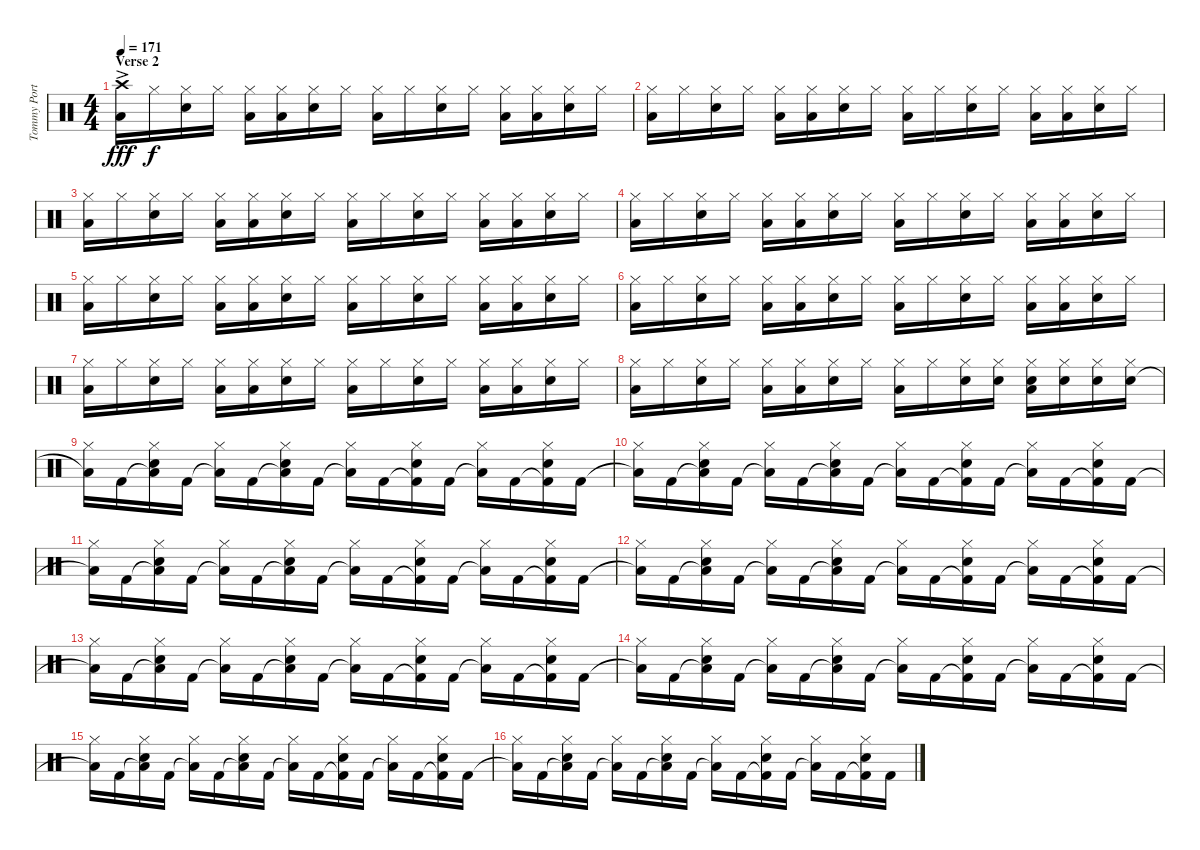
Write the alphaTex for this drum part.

\track ("Tommy Portino" "Tommy Port") {instrument percussion}
\staff {score}
\articulation defaults
\ts (4 4)
\section ("" "Verse 2")
\tempo 171
\clef neutral
\ks aminor
("Low Floor Tom (hit)"{ac} "Crash high (hit)").16{dy fff} "Hi-Hat (closed)".16{dy f} ("Electric Snare (hit)" "Hi-Hat (closed)").16 "Hi-Hat (closed)".16 ("Low Floor Tom (hit)" "Hi-Hat (closed)").16 ("Low Floor Tom (hit)" "Hi-Hat (closed)").16 ("Electric Snare (hit)" "Hi-Hat (closed)").16 "Hi-Hat (closed)".16 ("Low Floor Tom (hit)" "Hi-Hat (closed)").16 "Hi-Hat (closed)".16 ("Electric Snare (hit)" "Hi-Hat (closed)").16 "Hi-Hat (closed)".16 ("Low Floor Tom (hit)" "Hi-Hat (closed)").16 ("Low Floor Tom (hit)" "Hi-Hat (closed)").16 ("Electric Snare (hit)" "Hi-Hat (closed)").16 "Hi-Hat (closed)".16 |
("Low Floor Tom (hit)" "Hi-Hat (closed)").16 "Hi-Hat (closed)".16 ("Electric Snare (hit)" "Hi-Hat (closed)").16 "Hi-Hat (closed)".16 ("Low Floor Tom (hit)" "Hi-Hat (closed)").16 ("Low Floor Tom (hit)" "Hi-Hat (closed)").16 ("Electric Snare (hit)" "Hi-Hat (closed)").16 "Hi-Hat (closed)".16 ("Low Floor Tom (hit)" "Hi-Hat (closed)").16 "Hi-Hat (closed)".16 ("Electric Snare (hit)" "Hi-Hat (closed)").16 "Hi-Hat (closed)".16 ("Low Floor Tom (hit)" "Hi-Hat (closed)").16 ("Low Floor Tom (hit)" "Hi-Hat (closed)").16 ("Electric Snare (hit)" "Hi-Hat (closed)").16 "Hi-Hat (closed)".16 |
("Low Floor Tom (hit)" "Hi-Hat (closed)").16 "Hi-Hat (closed)".16 ("Electric Snare (hit)" "Hi-Hat (closed)").16 "Hi-Hat (closed)".16 ("Low Floor Tom (hit)" "Hi-Hat (closed)").16 ("Low Floor Tom (hit)" "Hi-Hat (closed)").16 ("Electric Snare (hit)" "Hi-Hat (closed)").16 "Hi-Hat (closed)".16 ("Low Floor Tom (hit)" "Hi-Hat (closed)").16 "Hi-Hat (closed)".16 ("Electric Snare (hit)" "Hi-Hat (closed)").16 "Hi-Hat (closed)".16 ("Low Floor Tom (hit)" "Hi-Hat (closed)").16 ("Low Floor Tom (hit)" "Hi-Hat (closed)").16 ("Electric Snare (hit)" "Hi-Hat (closed)").16 "Hi-Hat (closed)".16 |
("Low Floor Tom (hit)" "Hi-Hat (closed)").16 "Hi-Hat (closed)".16 ("Electric Snare (hit)" "Hi-Hat (closed)").16 "Hi-Hat (closed)".16 ("Low Floor Tom (hit)" "Hi-Hat (closed)").16 ("Low Floor Tom (hit)" "Hi-Hat (closed)").16 ("Electric Snare (hit)" "Hi-Hat (closed)").16 "Hi-Hat (closed)".16 ("Low Floor Tom (hit)" "Hi-Hat (closed)").16 "Hi-Hat (closed)".16 ("Electric Snare (hit)" "Hi-Hat (closed)").16 "Hi-Hat (closed)".16 ("Low Floor Tom (hit)" "Hi-Hat (closed)").16 ("Low Floor Tom (hit)" "Hi-Hat (closed)").16 ("Electric Snare (hit)" "Hi-Hat (closed)").16 "Hi-Hat (closed)".16 |
("Low Floor Tom (hit)" "Hi-Hat (closed)").16 "Hi-Hat (closed)".16 ("Electric Snare (hit)" "Hi-Hat (closed)").16 "Hi-Hat (closed)".16 ("Low Floor Tom (hit)" "Hi-Hat (closed)").16 ("Low Floor Tom (hit)" "Hi-Hat (closed)").16 ("Electric Snare (hit)" "Hi-Hat (closed)").16 "Hi-Hat (closed)".16 ("Low Floor Tom (hit)" "Hi-Hat (closed)").16 "Hi-Hat (closed)".16 ("Electric Snare (hit)" "Hi-Hat (closed)").16 "Hi-Hat (closed)".16 ("Low Floor Tom (hit)" "Hi-Hat (closed)").16 ("Low Floor Tom (hit)" "Hi-Hat (closed)").16 ("Electric Snare (hit)" "Hi-Hat (closed)").16 "Hi-Hat (closed)".16 |
("Low Floor Tom (hit)" "Hi-Hat (closed)").16 "Hi-Hat (closed)".16 ("Electric Snare (hit)" "Hi-Hat (closed)").16 "Hi-Hat (closed)".16 ("Low Floor Tom (hit)" "Hi-Hat (closed)").16 ("Low Floor Tom (hit)" "Hi-Hat (closed)").16 ("Electric Snare (hit)" "Hi-Hat (closed)").16 "Hi-Hat (closed)".16 ("Low Floor Tom (hit)" "Hi-Hat (closed)").16 "Hi-Hat (closed)".16 ("Electric Snare (hit)" "Hi-Hat (closed)").16 "Hi-Hat (closed)".16 ("Low Floor Tom (hit)" "Hi-Hat (closed)").16 ("Low Floor Tom (hit)" "Hi-Hat (closed)").16 ("Electric Snare (hit)" "Hi-Hat (closed)").16 "Hi-Hat (closed)".16 |
("Low Floor Tom (hit)" "Hi-Hat (closed)").16 "Hi-Hat (closed)".16 ("Electric Snare (hit)" "Hi-Hat (closed)").16 "Hi-Hat (closed)".16 ("Low Floor Tom (hit)" "Hi-Hat (closed)").16 ("Low Floor Tom (hit)" "Hi-Hat (closed)").16 ("Electric Snare (hit)" "Hi-Hat (closed)").16 "Hi-Hat (closed)".16 ("Low Floor Tom (hit)" "Hi-Hat (closed)").16 "Hi-Hat (closed)".16 ("Electric Snare (hit)" "Hi-Hat (closed)").16 "Hi-Hat (closed)".16 ("Low Floor Tom (hit)" "Hi-Hat (closed)").16 ("Low Floor Tom (hit)" "Hi-Hat (closed)").16 ("Electric Snare (hit)" "Hi-Hat (closed)").16 "Hi-Hat (closed)".16 |
("Low Floor Tom (hit)" "Hi-Hat (closed)").16 "Hi-Hat (closed)".16 ("Electric Snare (hit)" "Hi-Hat (closed)").16 "Hi-Hat (closed)".16 ("Low Floor Tom (hit)" "Hi-Hat (closed)").16 ("Low Floor Tom (hit)" "Hi-Hat (closed)").16 ("Electric Snare (hit)" "Hi-Hat (closed)").16 "Hi-Hat (closed)".16 ("Low Floor Tom (hit)" "Hi-Hat (closed)").16 "Hi-Hat (closed)".16 ("Electric Snare (hit)" "Hi-Hat (closed)").16 ("Electric Snare (hit)" "Hi-Hat (closed)").16 ("Low Floor Tom (hit)" "Electric Snare (hit)" "Hi-Hat (closed)").16 ("Electric Snare (hit)" "Hi-Hat (closed)").16 ("Electric Snare (hit)" "Hi-Hat (closed)").16 ("Electric Snare (hit)" "Hi-Hat (closed)").16 |
("Low Floor Tom (hit)"{t} "Hi-Hat (closed)").16 "Kick (hit) 2".16 ("Low Floor Tom (hit)"{t} "Electric Snare (hit)" "Hi-Hat (closed)").16 "Kick (hit) 2".16 ("Low Floor Tom (hit)"{t} "Hi-Hat (closed)").16 "Kick (hit) 2".16 ("Low Floor Tom (hit)"{t} "Electric Snare (hit)" "Hi-Hat (closed)").16 "Kick (hit) 2".16 ("Low Floor Tom (hit)"{t} "Hi-Hat (closed)").16 "Kick (hit) 2".16 ("Kick (hit) 2"{t} "Electric Snare (hit)" "Hi-Hat (closed)").16 "Kick (hit) 2".16 ("Low Floor Tom (hit)"{t} "Hi-Hat (closed)").16 "Kick (hit) 2".16 ("Kick (hit) 2"{t} "Electric Snare (hit)" "Hi-Hat (closed)").16 "Kick (hit) 2".16 |
("Low Floor Tom (hit)"{t} "Hi-Hat (closed)").16 "Kick (hit) 2".16 ("Low Floor Tom (hit)"{t} "Electric Snare (hit)" "Hi-Hat (closed)").16 "Kick (hit) 2".16 ("Low Floor Tom (hit)"{t} "Hi-Hat (closed)").16 "Kick (hit) 2".16 ("Low Floor Tom (hit)"{t} "Electric Snare (hit)" "Hi-Hat (closed)").16 "Kick (hit) 2".16 ("Low Floor Tom (hit)"{t} "Hi-Hat (closed)").16 "Kick (hit) 2".16 ("Kick (hit) 2"{t} "Electric Snare (hit)" "Hi-Hat (closed)").16 "Kick (hit) 2".16 ("Low Floor Tom (hit)"{t} "Hi-Hat (closed)").16 "Kick (hit) 2".16 ("Kick (hit) 2"{t} "Electric Snare (hit)" "Hi-Hat (closed)").16 "Kick (hit) 2".16 |
("Low Floor Tom (hit)"{t} "Hi-Hat (closed)").16 "Kick (hit) 2".16 ("Low Floor Tom (hit)"{t} "Electric Snare (hit)" "Hi-Hat (closed)").16 "Kick (hit) 2".16 ("Low Floor Tom (hit)"{t} "Hi-Hat (closed)").16 "Kick (hit) 2".16 ("Low Floor Tom (hit)"{t} "Electric Snare (hit)" "Hi-Hat (closed)").16 "Kick (hit) 2".16 ("Low Floor Tom (hit)"{t} "Hi-Hat (closed)").16 "Kick (hit) 2".16 ("Kick (hit) 2"{t} "Electric Snare (hit)" "Hi-Hat (closed)").16 "Kick (hit) 2".16 ("Low Floor Tom (hit)"{t} "Hi-Hat (closed)").16 "Kick (hit) 2".16 ("Kick (hit) 2"{t} "Electric Snare (hit)" "Hi-Hat (closed)").16 "Kick (hit) 2".16 |
("Low Floor Tom (hit)"{t} "Hi-Hat (closed)").16 "Kick (hit) 2".16 ("Low Floor Tom (hit)"{t} "Electric Snare (hit)" "Hi-Hat (closed)").16 "Kick (hit) 2".16 ("Low Floor Tom (hit)"{t} "Hi-Hat (closed)").16 "Kick (hit) 2".16 ("Low Floor Tom (hit)"{t} "Electric Snare (hit)" "Hi-Hat (closed)").16 "Kick (hit) 2".16 ("Low Floor Tom (hit)"{t} "Hi-Hat (closed)").16 "Kick (hit) 2".16 ("Kick (hit) 2"{t} "Electric Snare (hit)" "Hi-Hat (closed)").16 "Kick (hit) 2".16 ("Low Floor Tom (hit)"{t} "Hi-Hat (closed)").16 "Kick (hit) 2".16 ("Kick (hit) 2"{t} "Electric Snare (hit)" "Hi-Hat (closed)").16 "Kick (hit) 2".16 |
("Low Floor Tom (hit)"{t} "Hi-Hat (closed)").16 "Kick (hit) 2".16 ("Low Floor Tom (hit)"{t} "Electric Snare (hit)" "Hi-Hat (closed)").16 "Kick (hit) 2".16 ("Low Floor Tom (hit)"{t} "Hi-Hat (closed)").16 "Kick (hit) 2".16 ("Low Floor Tom (hit)"{t} "Electric Snare (hit)" "Hi-Hat (closed)").16 "Kick (hit) 2".16 ("Low Floor Tom (hit)"{t} "Hi-Hat (closed)").16 "Kick (hit) 2".16 ("Kick (hit) 2"{t} "Electric Snare (hit)" "Hi-Hat (closed)").16 "Kick (hit) 2".16 ("Low Floor Tom (hit)"{t} "Hi-Hat (closed)").16 "Kick (hit) 2".16 ("Kick (hit) 2"{t} "Electric Snare (hit)" "Hi-Hat (closed)").16 "Kick (hit) 2".16 |
("Low Floor Tom (hit)"{t} "Hi-Hat (closed)").16 "Kick (hit) 2".16 ("Low Floor Tom (hit)"{t} "Electric Snare (hit)" "Hi-Hat (closed)").16 "Kick (hit) 2".16 ("Low Floor Tom (hit)"{t} "Hi-Hat (closed)").16 "Kick (hit) 2".16 ("Low Floor Tom (hit)"{t} "Electric Snare (hit)" "Hi-Hat (closed)").16 "Kick (hit) 2".16 ("Low Floor Tom (hit)"{t} "Hi-Hat (closed)").16 "Kick (hit) 2".16 ("Kick (hit) 2"{t} "Electric Snare (hit)" "Hi-Hat (closed)").16 "Kick (hit) 2".16 ("Low Floor Tom (hit)"{t} "Hi-Hat (closed)").16 "Kick (hit) 2".16 ("Kick (hit) 2"{t} "Electric Snare (hit)" "Hi-Hat (closed)").16 "Kick (hit) 2".16 |
("Low Floor Tom (hit)"{t} "Hi-Hat (closed)").16 "Kick (hit) 2".16 ("Low Floor Tom (hit)"{t} "Electric Snare (hit)" "Hi-Hat (closed)").16 "Kick (hit) 2".16 ("Low Floor Tom (hit)"{t} "Hi-Hat (closed)").16 "Kick (hit) 2".16 ("Low Floor Tom (hit)"{t} "Electric Snare (hit)" "Hi-Hat (closed)").16 "Kick (hit) 2".16 ("Low Floor Tom (hit)"{t} "Hi-Hat (closed)").16 "Kick (hit) 2".16 ("Kick (hit) 2"{t} "Electric Snare (hit)" "Hi-Hat (closed)").16 "Kick (hit) 2".16 ("Low Floor Tom (hit)"{t} "Hi-Hat (closed)").16 "Kick (hit) 2".16 ("Kick (hit) 2"{t} "Electric Snare (hit)" "Hi-Hat (closed)").16 "Kick (hit) 2".16 |
("Low Floor Tom (hit)"{t} "Hi-Hat (closed)").16 "Kick (hit) 2".16 ("Low Floor Tom (hit)"{t} "Electric Snare (hit)" "Hi-Hat (closed)").16 "Kick (hit) 2".16 ("Low Floor Tom (hit)"{t} "Hi-Hat (closed)").16 "Kick (hit) 2".16 ("Low Floor Tom (hit)"{t} "Electric Snare (hit)" "Hi-Hat (closed)").16 "Kick (hit) 2".16 ("Low Floor Tom (hit)"{t} "Hi-Hat (closed)").16 "Kick (hit) 2".16 ("Kick (hit) 2"{t} "Electric Snare (hit)" "Hi-Hat (closed)").16 "Kick (hit) 2".16 ("Low Floor Tom (hit)"{t} "Hi-Hat (closed)").16 "Kick (hit) 2".16 ("Kick (hit) 2"{t} "Electric Snare (hit)" "Hi-Hat (closed)").16 "Kick (hit) 2".16
